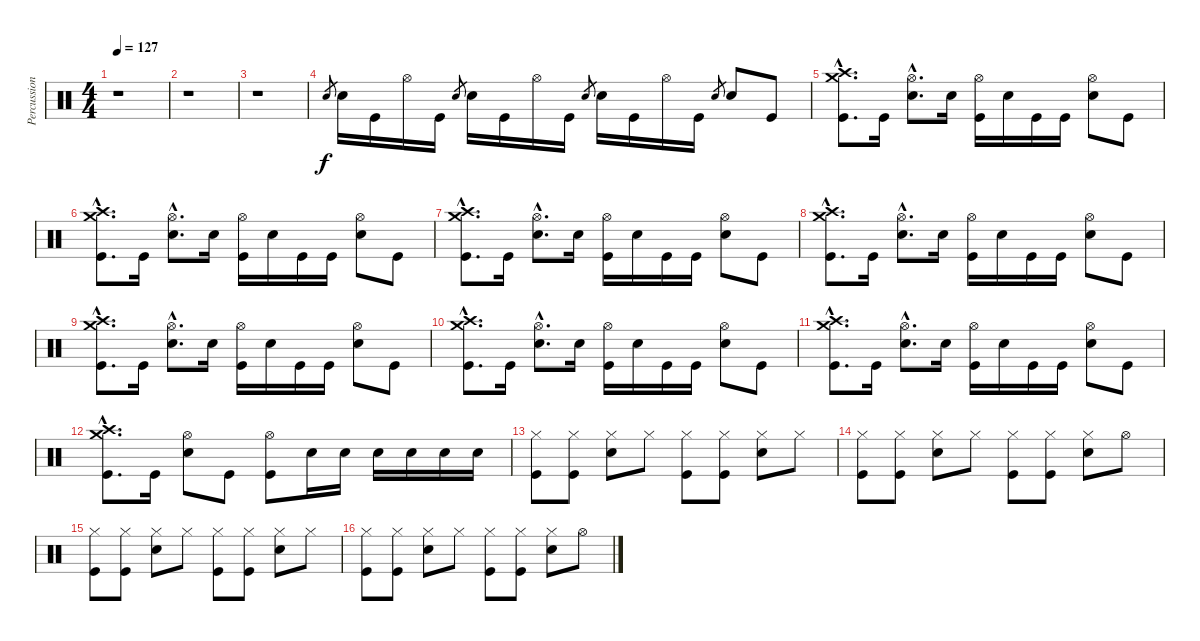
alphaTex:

\track ("Percussions" "Percussion") {instrument percussion}
\staff {score}
\articulation defaults
\ts (4 4)
\tempo 127
\clef neutral
\ks c
r.1{dy f} |
r.1 |
r.1 |
"Snare (hit) 2".8{gr} "Snare (hit) 2".16 "Kick (hit)".16 "Hi-Hat (open)".16 "Kick (hit)".16 "Snare (hit) 2".8{gr} "Snare (hit) 2".16 "Kick (hit)".16 "Hi-Hat (open)".16 "Kick (hit)".16 "Snare (hit) 2".8{gr} "Snare (hit) 2".16 "Kick (hit)".16 "Hi-Hat (open)".16 "Kick (hit)".16 "Snare (hit) 2".8{gr} "Snare (hit) 2".8 "Kick (hit)".8 |
("Crash high (hit)"{hac} "Crash medium (hit)"{hac} "Kick (hit)"{hac}).8{d} "Kick (hit)".16 ("Hi-Hat (open)"{hac} "Snare (hit) 2"{hac}).8{d} "Snare (hit) 2".16 ("Hi-Hat (open)" "Kick (hit)").16 "Snare (hit) 2".16 "Kick (hit)".16 "Kick (hit)".16 ("Hi-Hat (open)" "Snare (hit) 2").8 "Kick (hit)".8 |
("Crash high (hit)"{hac} "Crash medium (hit)"{hac} "Kick (hit)"{hac}).8{d} "Kick (hit)".16 ("Hi-Hat (open)"{hac} "Snare (hit) 2"{hac}).8{d} "Snare (hit) 2".16 ("Hi-Hat (open)" "Kick (hit)").16 "Snare (hit) 2".16 "Kick (hit)".16 "Kick (hit)".16 ("Hi-Hat (open)" "Snare (hit) 2").8 "Kick (hit)".8 |
("Crash high (hit)"{hac} "Crash medium (hit)"{hac} "Kick (hit)"{hac}).8{d} "Kick (hit)".16 ("Hi-Hat (open)"{hac} "Snare (hit) 2"{hac}).8{d} "Snare (hit) 2".16 ("Hi-Hat (open)" "Kick (hit)").16 "Snare (hit) 2".16 "Kick (hit)".16 "Kick (hit)".16 ("Hi-Hat (open)" "Snare (hit) 2").8 "Kick (hit)".8 |
("Crash high (hit)"{hac} "Crash medium (hit)"{hac} "Kick (hit)"{hac}).8{d} "Kick (hit)".16 ("Hi-Hat (open)"{hac} "Snare (hit) 2"{hac}).8{d} "Snare (hit) 2".16 ("Hi-Hat (open)" "Kick (hit)").16 "Snare (hit) 2".16 "Kick (hit)".16 "Kick (hit)".16 ("Hi-Hat (open)" "Snare (hit) 2").8 "Kick (hit)".8 |
("Crash high (hit)"{hac} "Crash medium (hit)"{hac} "Kick (hit)"{hac}).8{d} "Kick (hit)".16 ("Hi-Hat (open)"{hac} "Snare (hit) 2"{hac}).8{d} "Snare (hit) 2".16 ("Hi-Hat (open)" "Kick (hit)").16 "Snare (hit) 2".16 "Kick (hit)".16 "Kick (hit)".16 ("Hi-Hat (open)" "Snare (hit) 2").8 "Kick (hit)".8 |
("Crash high (hit)"{hac} "Crash medium (hit)"{hac} "Kick (hit)"{hac}).8{d} "Kick (hit)".16 ("Hi-Hat (open)"{hac} "Snare (hit) 2"{hac}).8{d} "Snare (hit) 2".16 ("Hi-Hat (open)" "Kick (hit)").16 "Snare (hit) 2".16 "Kick (hit)".16 "Kick (hit)".16 ("Hi-Hat (open)" "Snare (hit) 2").8 "Kick (hit)".8 |
("Crash high (hit)"{hac} "Crash medium (hit)"{hac} "Kick (hit)"{hac}).8{d} "Kick (hit)".16 ("Hi-Hat (open)"{hac} "Snare (hit) 2"{hac}).8{d} "Snare (hit) 2".16 ("Hi-Hat (open)" "Kick (hit)").16 "Snare (hit) 2".16 "Kick (hit)".16 "Kick (hit)".16 ("Hi-Hat (open)" "Snare (hit) 2").8 "Kick (hit)".8 |
("Crash high (hit)"{hac} "Crash medium (hit)"{hac} "Kick (hit)"{hac}).8{d} "Kick (hit)".16 ("Hi-Hat (open)" "Snare (hit) 2").8 "Kick (hit)".8 ("Hi-Hat (open)" "Kick (hit)").8 "Snare (hit) 2".16 "Snare (hit) 2".16 "Snare (hit) 2".16 "Snare (hit) 2".16 "Snare (hit) 2".16 "Snare (hit) 2".16 |
("Hi-Hat (closed)" "Kick (hit)").8 ("Hi-Hat (closed)" "Kick (hit)").8 ("Hi-Hat (closed)" "Snare (hit) 2").8 "Hi-Hat (closed)".8 ("Hi-Hat (closed)" "Kick (hit)").8 ("Hi-Hat (closed)" "Kick (hit)").8 ("Hi-Hat (closed)" "Snare (hit) 2").8 "Hi-Hat (closed)".8 |
("Hi-Hat (closed)" "Kick (hit)").8 ("Hi-Hat (closed)" "Kick (hit)").8 ("Hi-Hat (closed)" "Snare (hit) 2").8 "Hi-Hat (closed)".8 ("Hi-Hat (closed)" "Kick (hit)").8 ("Hi-Hat (closed)" "Kick (hit)").8 ("Hi-Hat (closed)" "Snare (hit) 2").8 "Hi-Hat (open)".8 |
("Hi-Hat (closed)" "Kick (hit)").8 ("Hi-Hat (closed)" "Kick (hit)").8 ("Hi-Hat (closed)" "Snare (hit) 2").8 "Hi-Hat (closed)".8 ("Hi-Hat (closed)" "Kick (hit)").8 ("Hi-Hat (closed)" "Kick (hit)").8 ("Hi-Hat (closed)" "Snare (hit) 2").8 "Hi-Hat (closed)".8 |
("Hi-Hat (closed)" "Kick (hit)").8 ("Hi-Hat (closed)" "Kick (hit)").8 ("Hi-Hat (closed)" "Snare (hit) 2").8 "Hi-Hat (closed)".8 ("Hi-Hat (closed)" "Kick (hit)").8 ("Hi-Hat (closed)" "Kick (hit)").8 ("Hi-Hat (closed)" "Snare (hit) 2").8 "Hi-Hat (open)".8
